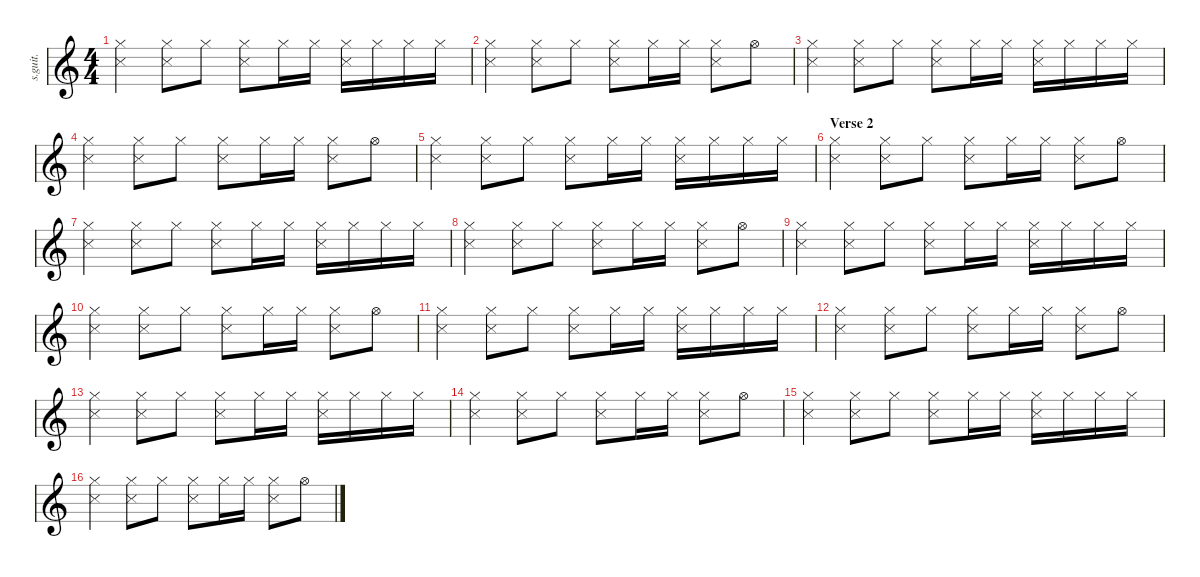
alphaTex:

\defaultSystemsLayout 4
\hideDynamics
\bracketExtendMode nobrackets
\track ("Percussion" "s.guit.") {instrument percussion}
\staff {score}
\articulation defaults
\ts (4 4)
\tempo (102 hide)
\clef g2
\ks c
("Snare (side stick) 3" "Hi-Hat (closed)").4{dy f} ("Snare (side stick) 3" "Hi-Hat (closed)").8 "Hi-Hat (closed)".8 ("Snare (side stick) 3" "Hi-Hat (closed)").8 "Hi-Hat (closed)".16 "Hi-Hat (closed)".16 ("Snare (side stick) 3" "Hi-Hat (closed)").16 "Hi-Hat (closed)".16 "Hi-Hat (closed)".16 "Hi-Hat (closed)".16 |
("Snare (side stick) 3" "Hi-Hat (closed)").4 ("Snare (side stick) 3" "Hi-Hat (closed)").8 "Hi-Hat (closed)".8 ("Snare (side stick) 3" "Hi-Hat (closed)").8 "Hi-Hat (closed)".16 "Hi-Hat (closed)".16 ("Snare (side stick) 3" "Hi-Hat (closed)").8 "Hi-Hat (open)".8 |
("Snare (side stick) 3" "Hi-Hat (closed)").4 ("Snare (side stick) 3" "Hi-Hat (closed)").8 "Hi-Hat (closed)".8 ("Snare (side stick) 3" "Hi-Hat (closed)").8 "Hi-Hat (closed)".16 "Hi-Hat (closed)".16 ("Snare (side stick) 3" "Hi-Hat (closed)").16 "Hi-Hat (closed)".16 "Hi-Hat (closed)".16 "Hi-Hat (closed)".16 |
("Snare (side stick) 3" "Hi-Hat (closed)").4 ("Snare (side stick) 3" "Hi-Hat (closed)").8 "Hi-Hat (closed)".8 ("Snare (side stick) 3" "Hi-Hat (closed)").8 "Hi-Hat (closed)".16 "Hi-Hat (closed)".16 ("Snare (side stick) 3" "Hi-Hat (closed)").8 "Hi-Hat (open)".8 |
("Snare (side stick) 3" "Hi-Hat (closed)").4 ("Snare (side stick) 3" "Hi-Hat (closed)").8 "Hi-Hat (closed)".8 ("Snare (side stick) 3" "Hi-Hat (closed)").8 "Hi-Hat (closed)".16 "Hi-Hat (closed)".16 ("Snare (side stick) 3" "Hi-Hat (closed)").16 "Hi-Hat (closed)".16 "Hi-Hat (closed)".16 "Hi-Hat (closed)".16 |
\section ("" "Verse 2")
("Snare (side stick) 3" "Hi-Hat (closed)").4 ("Snare (side stick) 3" "Hi-Hat (closed)").8 "Hi-Hat (closed)".8 ("Snare (side stick) 3" "Hi-Hat (closed)").8 "Hi-Hat (closed)".16 "Hi-Hat (closed)".16 ("Snare (side stick) 3" "Hi-Hat (closed)").8 "Hi-Hat (open)".8 |
("Snare (side stick) 3" "Hi-Hat (closed)").4 ("Snare (side stick) 3" "Hi-Hat (closed)").8 "Hi-Hat (closed)".8 ("Snare (side stick) 3" "Hi-Hat (closed)").8 "Hi-Hat (closed)".16 "Hi-Hat (closed)".16 ("Snare (side stick) 3" "Hi-Hat (closed)").16 "Hi-Hat (closed)".16 "Hi-Hat (closed)".16 "Hi-Hat (closed)".16 |
("Snare (side stick) 3" "Hi-Hat (closed)").4 ("Snare (side stick) 3" "Hi-Hat (closed)").8 "Hi-Hat (closed)".8 ("Snare (side stick) 3" "Hi-Hat (closed)").8 "Hi-Hat (closed)".16 "Hi-Hat (closed)".16 ("Snare (side stick) 3" "Hi-Hat (closed)").8 "Hi-Hat (open)".8 |
("Snare (side stick) 3" "Hi-Hat (closed)").4 ("Snare (side stick) 3" "Hi-Hat (closed)").8 "Hi-Hat (closed)".8 ("Snare (side stick) 3" "Hi-Hat (closed)").8 "Hi-Hat (closed)".16 "Hi-Hat (closed)".16 ("Snare (side stick) 3" "Hi-Hat (closed)").16 "Hi-Hat (closed)".16 "Hi-Hat (closed)".16 "Hi-Hat (closed)".16 |
("Snare (side stick) 3" "Hi-Hat (closed)").4 ("Snare (side stick) 3" "Hi-Hat (closed)").8 "Hi-Hat (closed)".8 ("Snare (side stick) 3" "Hi-Hat (closed)").8 "Hi-Hat (closed)".16 "Hi-Hat (closed)".16 ("Snare (side stick) 3" "Hi-Hat (closed)").8 "Hi-Hat (open)".8 |
("Snare (side stick) 3" "Hi-Hat (closed)").4 ("Snare (side stick) 3" "Hi-Hat (closed)").8 "Hi-Hat (closed)".8 ("Snare (side stick) 3" "Hi-Hat (closed)").8 "Hi-Hat (closed)".16 "Hi-Hat (closed)".16 ("Snare (side stick) 3" "Hi-Hat (closed)").16 "Hi-Hat (closed)".16 "Hi-Hat (closed)".16 "Hi-Hat (closed)".16 |
("Snare (side stick) 3" "Hi-Hat (closed)").4 ("Snare (side stick) 3" "Hi-Hat (closed)").8 "Hi-Hat (closed)".8 ("Snare (side stick) 3" "Hi-Hat (closed)").8 "Hi-Hat (closed)".16 "Hi-Hat (closed)".16 ("Snare (side stick) 3" "Hi-Hat (closed)").8 "Hi-Hat (open)".8 |
("Snare (side stick) 3" "Hi-Hat (closed)").4 ("Snare (side stick) 3" "Hi-Hat (closed)").8 "Hi-Hat (closed)".8 ("Snare (side stick) 3" "Hi-Hat (closed)").8 "Hi-Hat (closed)".16 "Hi-Hat (closed)".16 ("Snare (side stick) 3" "Hi-Hat (closed)").16 "Hi-Hat (closed)".16 "Hi-Hat (closed)".16 "Hi-Hat (closed)".16 |
("Snare (side stick) 3" "Hi-Hat (closed)").4 ("Snare (side stick) 3" "Hi-Hat (closed)").8 "Hi-Hat (closed)".8 ("Snare (side stick) 3" "Hi-Hat (closed)").8 "Hi-Hat (closed)".16 "Hi-Hat (closed)".16 ("Snare (side stick) 3" "Hi-Hat (closed)").8 "Hi-Hat (open)".8 |
("Snare (side stick) 3" "Hi-Hat (closed)").4 ("Snare (side stick) 3" "Hi-Hat (closed)").8 "Hi-Hat (closed)".8 ("Snare (side stick) 3" "Hi-Hat (closed)").8 "Hi-Hat (closed)".16 "Hi-Hat (closed)".16 ("Snare (side stick) 3" "Hi-Hat (closed)").16 "Hi-Hat (closed)".16 "Hi-Hat (closed)".16 "Hi-Hat (closed)".16 |
("Snare (side stick) 3" "Hi-Hat (closed)").4 ("Snare (side stick) 3" "Hi-Hat (closed)").8 "Hi-Hat (closed)".8 ("Snare (side stick) 3" "Hi-Hat (closed)").8 "Hi-Hat (closed)".16 "Hi-Hat (closed)".16 ("Snare (side stick) 3" "Hi-Hat (closed)").8 "Hi-Hat (open)".8
